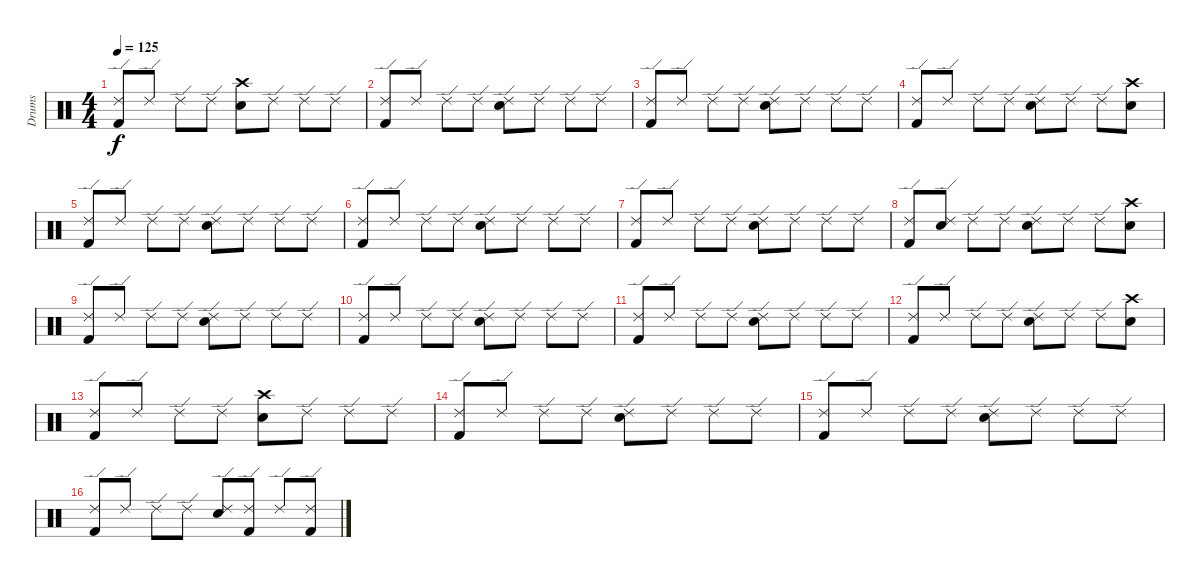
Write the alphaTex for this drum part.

\track ("Drums" "Drums") {instrument percussion}
\staff {score}
\articulation defaults
\ts (4 4)
\tempo 125
\clef neutral
\ks c
("Ride (edge) 2" "Kick (hit) 2").8{dy f} "Ride (edge) 2".8 "Ride (edge) 2".8 "Ride (edge) 2".8 ("Crash high (hit)" "Electric Snare (hit)").8 "Ride (edge) 2".8 "Ride (edge) 2".8 "Ride (edge) 2".8 |
("Ride (edge) 2" "Kick (hit) 2").8 "Ride (edge) 2".8 "Ride (edge) 2".8 "Ride (edge) 2".8 ("Ride (edge) 2" "Electric Snare (hit)").8 "Ride (edge) 2".8 "Ride (edge) 2".8 "Ride (edge) 2".8 |
("Ride (edge) 2" "Kick (hit) 2").8 "Ride (edge) 2".8 "Ride (edge) 2".8 "Ride (edge) 2".8 ("Ride (edge) 2" "Electric Snare (hit)").8 "Ride (edge) 2".8 "Ride (edge) 2".8 "Ride (edge) 2".8 |
("Ride (edge) 2" "Kick (hit) 2").8 "Ride (edge) 2".8 "Ride (edge) 2".8 "Ride (edge) 2".8 ("Ride (edge) 2" "Electric Snare (hit)").8 "Ride (edge) 2".8 "Ride (edge) 2".8 ("Crash high (hit)" "Electric Snare (hit)").8 |
("Ride (edge) 2" "Kick (hit) 2").8 "Ride (edge) 2".8 "Ride (edge) 2".8 "Ride (edge) 2".8 ("Ride (edge) 2" "Electric Snare (hit)").8 "Ride (edge) 2".8 "Ride (edge) 2".8 "Ride (edge) 2".8 |
("Ride (edge) 2" "Kick (hit) 2").8 "Ride (edge) 2".8 "Ride (edge) 2".8 "Ride (edge) 2".8 ("Ride (edge) 2" "Electric Snare (hit)").8 "Ride (edge) 2".8 "Ride (edge) 2".8 "Ride (edge) 2".8 |
("Ride (edge) 2" "Kick (hit) 2").8 "Ride (edge) 2".8 "Ride (edge) 2".8 "Ride (edge) 2".8 ("Ride (edge) 2" "Electric Snare (hit)").8 "Ride (edge) 2".8 "Ride (edge) 2".8 "Ride (edge) 2".8 |
("Ride (edge) 2" "Kick (hit) 2").8 ("Ride (edge) 2" "Electric Snare (hit)").8 "Ride (edge) 2".8 "Ride (edge) 2".8 ("Ride (edge) 2" "Electric Snare (hit)").8 "Ride (edge) 2".8 "Ride (edge) 2".8 ("Crash high (hit)" "Electric Snare (hit)").8 |
("Ride (edge) 2" "Kick (hit) 2").8 "Ride (edge) 2".8 "Ride (edge) 2".8 "Ride (edge) 2".8 ("Ride (edge) 2" "Electric Snare (hit)").8 "Ride (edge) 2".8 "Ride (edge) 2".8 "Ride (edge) 2".8 |
("Ride (edge) 2" "Kick (hit) 2").8 "Ride (edge) 2".8 "Ride (edge) 2".8 "Ride (edge) 2".8 ("Ride (edge) 2" "Electric Snare (hit)").8 "Ride (edge) 2".8 "Ride (edge) 2".8 "Ride (edge) 2".8 |
("Ride (edge) 2" "Kick (hit) 2").8 "Ride (edge) 2".8 "Ride (edge) 2".8 "Ride (edge) 2".8 ("Ride (edge) 2" "Electric Snare (hit)").8 "Ride (edge) 2".8 "Ride (edge) 2".8 "Ride (edge) 2".8 |
("Ride (edge) 2" "Kick (hit) 2").8 "Ride (edge) 2".8 "Ride (edge) 2".8 "Ride (edge) 2".8 ("Ride (edge) 2" "Electric Snare (hit)").8 "Ride (edge) 2".8 "Ride (edge) 2".8 ("Crash high (hit)" "Electric Snare (hit)").8 |
("Ride (edge) 2" "Kick (hit) 2").8 "Ride (edge) 2".8 "Ride (edge) 2".8 "Ride (edge) 2".8 ("Crash high (hit)" "Electric Snare (hit)").8 "Ride (edge) 2".8 "Ride (edge) 2".8 "Ride (edge) 2".8 |
("Ride (edge) 2" "Kick (hit) 2").8 "Ride (edge) 2".8 "Ride (edge) 2".8 "Ride (edge) 2".8 ("Ride (edge) 2" "Electric Snare (hit)").8 "Ride (edge) 2".8 "Ride (edge) 2".8 "Ride (edge) 2".8 |
("Ride (edge) 2" "Kick (hit) 2").8 "Ride (edge) 2".8 "Ride (edge) 2".8 "Ride (edge) 2".8 ("Ride (edge) 2" "Electric Snare (hit)").8 "Ride (edge) 2".8 "Ride (edge) 2".8 "Ride (edge) 2".8 |
("Ride (edge) 2" "Kick (hit) 2").8 "Ride (edge) 2".8 "Ride (edge) 2".8 "Ride (edge) 2".8 ("Ride (edge) 2" "Electric Snare (hit)").8 ("Ride (edge) 2" "Kick (hit) 2").8 "Ride (edge) 2".8 ("Ride (edge) 2" "Kick (hit) 2").8
